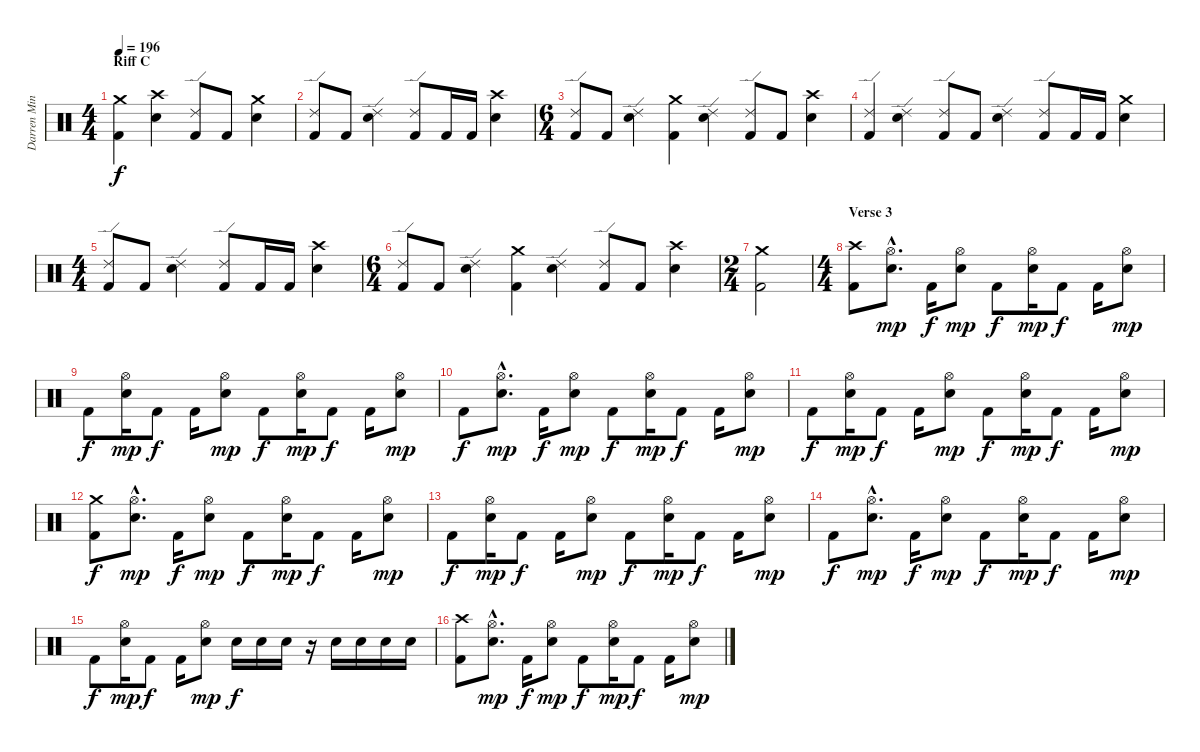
\track ("Darren Minter" "Darren Min") {instrument percussion}
\staff {score}
\articulation defaults
\ts (4 4)
\section ("" "Riff C")
\tempo 196
\clef neutral
\ks c
("Kick (hit) 2" "Crash medium (hit)").4{dy f} ("Crash high (hit)" "Snare (hit) 2").4 ("Kick (hit) 2" "Ride (edge) 2").8 "Kick (hit) 2".8 ("Crash medium (hit)" "Snare (hit) 2").4 |
("Kick (hit) 2" "Ride (edge) 2").8 "Kick (hit) 2".8 ("Ride (edge) 2" "Snare (hit) 2").4 ("Kick (hit) 2" "Ride (edge) 2").8 "Kick (hit) 2".16 "Kick (hit) 2".16 ("Crash high (hit)" "Snare (hit) 2").4 |
\ts (6 4)
("Kick (hit) 2" "Ride (edge) 2").8 "Kick (hit) 2".8 ("Ride (edge) 2" "Snare (hit) 2").4 ("Kick (hit) 2" "Crash medium (hit)").4 ("Ride (edge) 2" "Snare (hit) 2").4 ("Kick (hit) 2" "Ride (edge) 2").8 "Kick (hit) 2".8 ("Crash high (hit)" "Snare (hit) 2").4 |
("Kick (hit) 2" "Ride (edge) 2").4 ("Ride (edge) 2" "Snare (hit) 2").4 ("Kick (hit) 2" "Ride (edge) 2").8 "Kick (hit) 2".8 ("Ride (edge) 2" "Snare (hit) 2").4 ("Kick (hit) 2" "Ride (edge) 2").8 "Kick (hit) 2".16 "Kick (hit) 2".16 ("Crash medium (hit)" "Snare (hit) 2").4 |
\ts (4 4)
("Kick (hit) 2" "Ride (edge) 2").8 "Kick (hit) 2".8 ("Ride (edge) 2" "Snare (hit) 2").4 ("Kick (hit) 2" "Ride (edge) 2").8 "Kick (hit) 2".16 "Kick (hit) 2".16 ("Crash high (hit)" "Snare (hit) 2").4 |
\ts (6 4)
("Kick (hit) 2" "Ride (edge) 2").8 "Kick (hit) 2".8 ("Ride (edge) 2" "Snare (hit) 2").4 ("Kick (hit) 2" "Crash medium (hit)").4 ("Ride (edge) 2" "Snare (hit) 2").4 ("Kick (hit) 2" "Ride (edge) 2").8 "Kick (hit) 2".8 ("Crash high (hit)" "Snare (hit) 2").4 |
\ts (2 4)
("Kick (hit) 2" "Crash medium (hit)").2 |
\ts (4 4)
\section ("" "Verse 3")
("Kick (hit) 2" "Crash high (hit)").8 ("Hi-Hat (open)"{hac} "Snare (hit) 2"{hac}).8{d dy mp} "Kick (hit) 2".16{dy f} ("Hi-Hat (open)" "Snare (hit) 2").8{dy mp} "Kick (hit) 2".8{dy f} ("Hi-Hat (open)" "Snare (hit) 2").16{dy mp} "Kick (hit) 2".8{dy f} "Kick (hit) 2".16 ("Hi-Hat (open)" "Snare (hit) 2").8{dy mp} |
"Kick (hit) 2".8{dy f} ("Hi-Hat (open)" "Snare (hit) 2").16{dy mp} "Kick (hit) 2".8{dy f} "Kick (hit) 2".16 ("Hi-Hat (open)" "Snare (hit) 2").8{dy mp} "Kick (hit) 2".8{dy f} ("Hi-Hat (open)" "Snare (hit) 2").16{dy mp} "Kick (hit) 2".8{dy f} "Kick (hit) 2".16 ("Hi-Hat (open)" "Snare (hit) 2").8{dy mp} |
"Kick (hit) 2".8{dy f} ("Hi-Hat (open)"{hac} "Snare (hit) 2"{hac}).8{d dy mp} "Kick (hit) 2".16{dy f} ("Hi-Hat (open)" "Snare (hit) 2").8{dy mp} "Kick (hit) 2".8{dy f} ("Hi-Hat (open)" "Snare (hit) 2").16{dy mp} "Kick (hit) 2".8{dy f} "Kick (hit) 2".16 ("Hi-Hat (open)" "Snare (hit) 2").8{dy mp} |
"Kick (hit) 2".8{dy f} ("Hi-Hat (open)" "Snare (hit) 2").16{dy mp} "Kick (hit) 2".8{dy f} "Kick (hit) 2".16 ("Hi-Hat (open)" "Snare (hit) 2").8{dy mp} "Kick (hit) 2".8{dy f} ("Hi-Hat (open)" "Snare (hit) 2").16{dy mp} "Kick (hit) 2".8{dy f} "Kick (hit) 2".16 ("Hi-Hat (open)" "Snare (hit) 2").8{dy mp} |
("Kick (hit) 2" "Crash medium (hit)").8{dy f} ("Hi-Hat (open)"{hac} "Snare (hit) 2"{hac}).8{d dy mp} "Kick (hit) 2".16{dy f} ("Hi-Hat (open)" "Snare (hit) 2").8{dy mp} "Kick (hit) 2".8{dy f} ("Hi-Hat (open)" "Snare (hit) 2").16{dy mp} "Kick (hit) 2".8{dy f} "Kick (hit) 2".16 ("Hi-Hat (open)" "Snare (hit) 2").8{dy mp} |
"Kick (hit) 2".8{dy f} ("Hi-Hat (open)" "Snare (hit) 2").16{dy mp} "Kick (hit) 2".8{dy f} "Kick (hit) 2".16 ("Hi-Hat (open)" "Snare (hit) 2").8{dy mp} "Kick (hit) 2".8{dy f} ("Hi-Hat (open)" "Snare (hit) 2").16{dy mp} "Kick (hit) 2".8{dy f} "Kick (hit) 2".16 ("Hi-Hat (open)" "Snare (hit) 2").8{dy mp} |
"Kick (hit) 2".8{dy f} ("Hi-Hat (open)"{hac} "Snare (hit) 2"{hac}).8{d dy mp} "Kick (hit) 2".16{dy f} ("Hi-Hat (open)" "Snare (hit) 2").8{dy mp} "Kick (hit) 2".8{dy f} ("Hi-Hat (open)" "Snare (hit) 2").16{dy mp} "Kick (hit) 2".8{dy f} "Kick (hit) 2".16 ("Hi-Hat (open)" "Snare (hit) 2").8{dy mp} |
"Kick (hit) 2".8{dy f} ("Hi-Hat (open)" "Snare (hit) 2").16{dy mp} "Kick (hit) 2".8{dy f} "Kick (hit) 2".16 ("Hi-Hat (open)" "Snare (hit) 2").8{dy mp} "Snare (hit) 2".16{dy f} "Snare (hit) 2".16 "Snare (hit) 2".16 r.16 "Snare (hit) 2".16 "Snare (hit) 2".16 "Snare (hit) 2".16 "Snare (hit) 2".16 |
("Kick (hit) 2" "Crash high (hit)").8 ("Hi-Hat (open)"{hac} "Snare (hit) 2"{hac}).8{d dy mp} "Kick (hit) 2".16{dy f} ("Hi-Hat (open)" "Snare (hit) 2").8{dy mp} "Kick (hit) 2".8{dy f} ("Hi-Hat (open)" "Snare (hit) 2").16{dy mp} "Kick (hit) 2".8{dy f} "Kick (hit) 2".16 ("Hi-Hat (open)" "Snare (hit) 2").8{dy mp}
